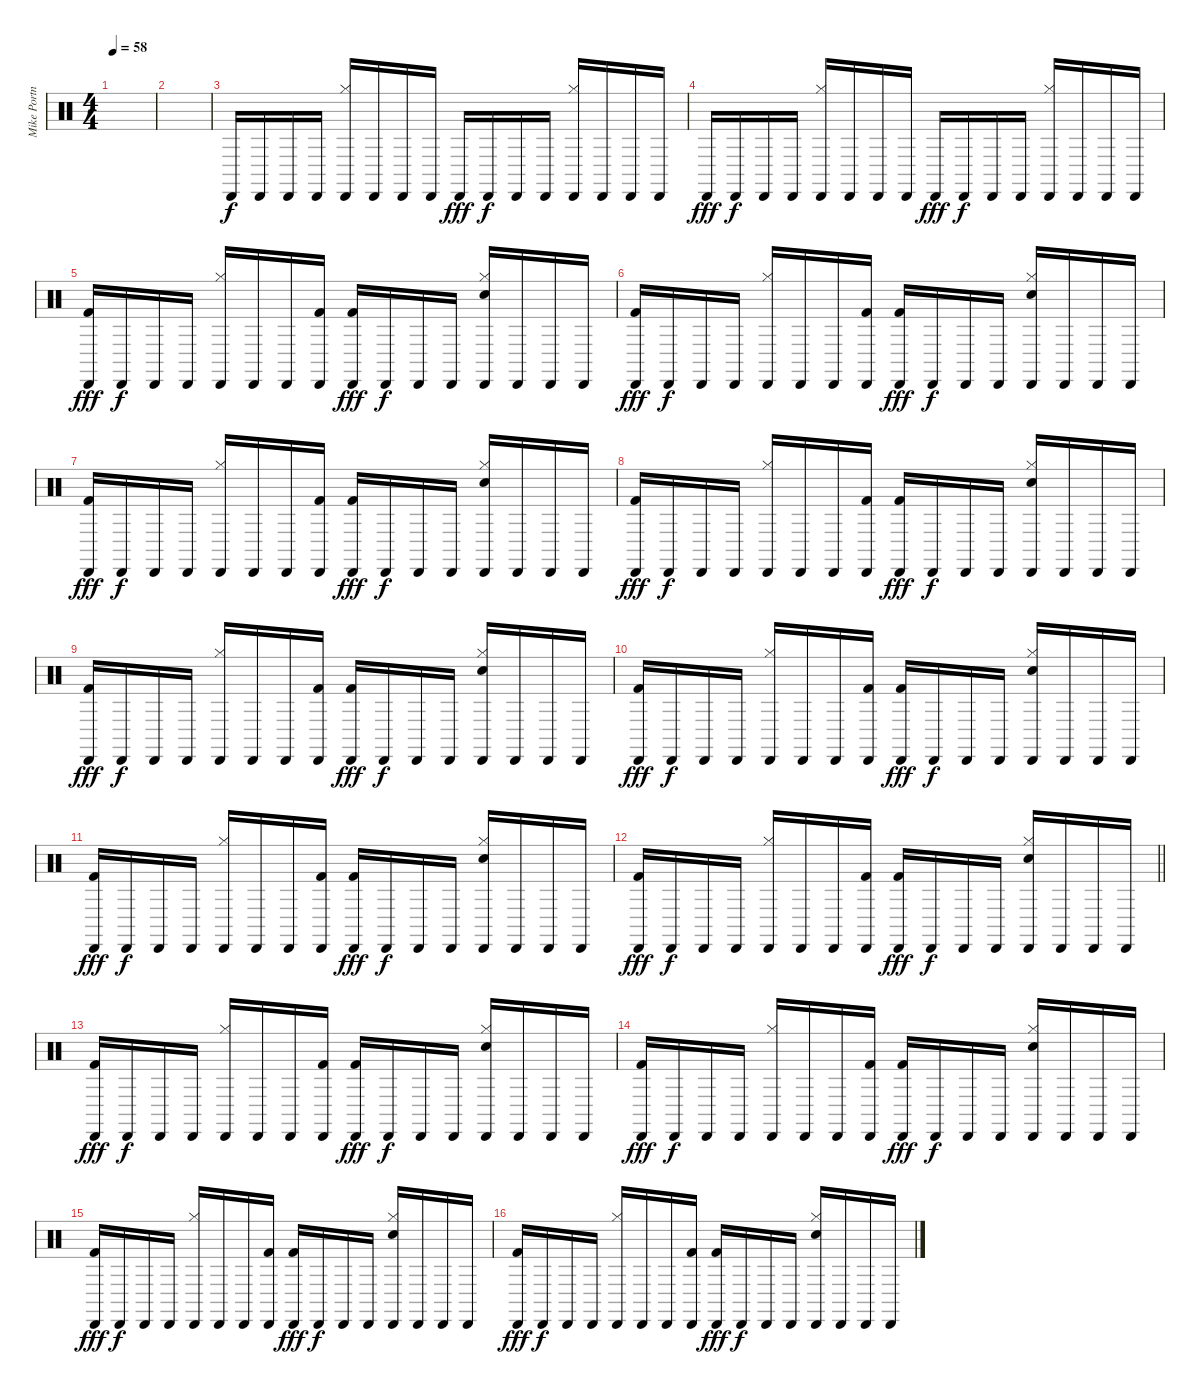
\track ("Mike Portnoy" "Mike Portn") {instrument percussion}
\staff {score}
\articulation defaults
\ts (4 4)
\tempo 58
\clef neutral
\ks c
|
|
"Cabasa (hit)".16{volume 9} "Cabasa (hit)".16{dy f} "Cabasa (hit)".16 "Cabasa (hit)".16 ("Hi-Hat (closed)" "Cabasa (hit)").16 "Cabasa (hit)".16 "Cabasa (hit)".16 "Cabasa (hit)".16 "Cabasa (hit)".16{dy fff} "Cabasa (hit)".16{dy f} "Cabasa (hit)".16 "Cabasa (hit)".16 ("Hi-Hat (closed)" "Cabasa (hit)").16 "Cabasa (hit)".16 "Cabasa (hit)".16 "Cabasa (hit)".16 |
"Cabasa (hit)".16{dy fff} "Cabasa (hit)".16{dy f} "Cabasa (hit)".16 "Cabasa (hit)".16 ("Hi-Hat (closed)" "Cabasa (hit)").16 "Cabasa (hit)".16 "Cabasa (hit)".16 "Cabasa (hit)".16 "Cabasa (hit)".16{dy fff} "Cabasa (hit)".16{dy f} "Cabasa (hit)".16 "Cabasa (hit)".16 ("Hi-Hat (closed)" "Cabasa (hit)").16 "Cabasa (hit)".16 "Cabasa (hit)".16 "Cabasa (hit)".16 |
("Cabasa (hit)" "Kick (hit) 2").16{dy fff} "Cabasa (hit)".16{dy f} "Cabasa (hit)".16 "Cabasa (hit)".16 ("Hi-Hat (closed)" "Cabasa (hit)").16 "Cabasa (hit)".16 "Cabasa (hit)".16 ("Cabasa (hit)" "Kick (hit) 2").16 ("Cabasa (hit)" "Kick (hit) 2").16{dy fff} "Cabasa (hit)".16{dy f} "Cabasa (hit)".16 "Cabasa (hit)".16 ("Hi-Hat (closed)" "Cabasa (hit)" "Snare (hit) 2").16 "Cabasa (hit)".16 "Cabasa (hit)".16 "Cabasa (hit)".16 |
("Cabasa (hit)" "Kick (hit) 2").16{dy fff} "Cabasa (hit)".16{dy f} "Cabasa (hit)".16 "Cabasa (hit)".16 ("Hi-Hat (closed)" "Cabasa (hit)").16 "Cabasa (hit)".16 "Cabasa (hit)".16 ("Cabasa (hit)" "Kick (hit) 2").16 ("Cabasa (hit)" "Kick (hit) 2").16{dy fff} "Cabasa (hit)".16{dy f} "Cabasa (hit)".16 "Cabasa (hit)".16 ("Hi-Hat (closed)" "Cabasa (hit)" "Snare (hit) 2").16 "Cabasa (hit)".16 "Cabasa (hit)".16 "Cabasa (hit)".16 |
("Cabasa (hit)" "Kick (hit) 2").16{dy fff} "Cabasa (hit)".16{dy f} "Cabasa (hit)".16 "Cabasa (hit)".16 ("Hi-Hat (closed)" "Cabasa (hit)").16 "Cabasa (hit)".16 "Cabasa (hit)".16 ("Cabasa (hit)" "Kick (hit) 2").16 ("Cabasa (hit)" "Kick (hit) 2").16{dy fff} "Cabasa (hit)".16{dy f} "Cabasa (hit)".16 "Cabasa (hit)".16 ("Hi-Hat (closed)" "Cabasa (hit)" "Snare (hit) 2").16 "Cabasa (hit)".16 "Cabasa (hit)".16 "Cabasa (hit)".16 |
("Cabasa (hit)" "Kick (hit) 2").16{dy fff} "Cabasa (hit)".16{dy f} "Cabasa (hit)".16 "Cabasa (hit)".16 ("Hi-Hat (closed)" "Cabasa (hit)").16 "Cabasa (hit)".16 "Cabasa (hit)".16 ("Cabasa (hit)" "Kick (hit) 2").16 ("Cabasa (hit)" "Kick (hit) 2").16{dy fff} "Cabasa (hit)".16{dy f} "Cabasa (hit)".16 "Cabasa (hit)".16 ("Hi-Hat (closed)" "Cabasa (hit)" "Snare (hit) 2").16 "Cabasa (hit)".16 "Cabasa (hit)".16 "Cabasa (hit)".16 |
("Cabasa (hit)" "Kick (hit) 2").16{dy fff} "Cabasa (hit)".16{dy f} "Cabasa (hit)".16 "Cabasa (hit)".16 ("Hi-Hat (closed)" "Cabasa (hit)").16 "Cabasa (hit)".16 "Cabasa (hit)".16 ("Cabasa (hit)" "Kick (hit) 2").16 ("Cabasa (hit)" "Kick (hit) 2").16{dy fff} "Cabasa (hit)".16{dy f} "Cabasa (hit)".16 "Cabasa (hit)".16 ("Hi-Hat (closed)" "Cabasa (hit)" "Snare (hit) 2").16 "Cabasa (hit)".16 "Cabasa (hit)".16 "Cabasa (hit)".16 |
("Cabasa (hit)" "Kick (hit) 2").16{dy fff} "Cabasa (hit)".16{dy f} "Cabasa (hit)".16 "Cabasa (hit)".16 ("Hi-Hat (closed)" "Cabasa (hit)").16 "Cabasa (hit)".16 "Cabasa (hit)".16 ("Cabasa (hit)" "Kick (hit) 2").16 ("Cabasa (hit)" "Kick (hit) 2").16{dy fff} "Cabasa (hit)".16{dy f} "Cabasa (hit)".16 "Cabasa (hit)".16 ("Hi-Hat (closed)" "Cabasa (hit)" "Snare (hit) 2").16 "Cabasa (hit)".16 "Cabasa (hit)".16 "Cabasa (hit)".16 |
("Cabasa (hit)" "Kick (hit) 2").16{dy fff} "Cabasa (hit)".16{dy f} "Cabasa (hit)".16 "Cabasa (hit)".16 ("Hi-Hat (closed)" "Cabasa (hit)").16 "Cabasa (hit)".16 "Cabasa (hit)".16 ("Cabasa (hit)" "Kick (hit) 2").16 ("Cabasa (hit)" "Kick (hit) 2").16{dy fff} "Cabasa (hit)".16{dy f} "Cabasa (hit)".16 "Cabasa (hit)".16 ("Hi-Hat (closed)" "Cabasa (hit)" "Snare (hit) 2").16 "Cabasa (hit)".16 "Cabasa (hit)".16 "Cabasa (hit)".16 |
\barLineRight lightlight
("Cabasa (hit)" "Kick (hit) 2").16{dy fff} "Cabasa (hit)".16{dy f} "Cabasa (hit)".16 "Cabasa (hit)".16 ("Hi-Hat (closed)" "Cabasa (hit)").16 "Cabasa (hit)".16 "Cabasa (hit)".16 ("Cabasa (hit)" "Kick (hit) 2").16 ("Cabasa (hit)" "Kick (hit) 2").16{dy fff} "Cabasa (hit)".16{dy f} "Cabasa (hit)".16 "Cabasa (hit)".16 ("Hi-Hat (closed)" "Cabasa (hit)" "Snare (hit) 2").16 "Cabasa (hit)".16 "Cabasa (hit)".16 "Cabasa (hit)".16 |
("Cabasa (hit)" "Kick (hit) 2").16{dy fff} "Cabasa (hit)".16{dy f} "Cabasa (hit)".16 "Cabasa (hit)".16 ("Hi-Hat (closed)" "Cabasa (hit)").16 "Cabasa (hit)".16 "Cabasa (hit)".16 ("Cabasa (hit)" "Kick (hit) 2").16 ("Cabasa (hit)" "Kick (hit) 2").16{dy fff} "Cabasa (hit)".16{dy f} "Cabasa (hit)".16 "Cabasa (hit)".16 ("Hi-Hat (closed)" "Cabasa (hit)" "Snare (hit) 2").16 "Cabasa (hit)".16 "Cabasa (hit)".16 "Cabasa (hit)".16 |
("Cabasa (hit)" "Kick (hit) 2").16{dy fff} "Cabasa (hit)".16{dy f} "Cabasa (hit)".16 "Cabasa (hit)".16 ("Hi-Hat (closed)" "Cabasa (hit)").16 "Cabasa (hit)".16 "Cabasa (hit)".16 ("Cabasa (hit)" "Kick (hit) 2").16 ("Cabasa (hit)" "Kick (hit) 2").16{dy fff} "Cabasa (hit)".16{dy f} "Cabasa (hit)".16 "Cabasa (hit)".16 ("Hi-Hat (closed)" "Cabasa (hit)" "Snare (hit) 2").16 "Cabasa (hit)".16 "Cabasa (hit)".16 "Cabasa (hit)".16 |
("Cabasa (hit)" "Kick (hit) 2").16{dy fff} "Cabasa (hit)".16{dy f} "Cabasa (hit)".16 "Cabasa (hit)".16 ("Hi-Hat (closed)" "Cabasa (hit)").16 "Cabasa (hit)".16 "Cabasa (hit)".16 ("Cabasa (hit)" "Kick (hit) 2").16 ("Cabasa (hit)" "Kick (hit) 2").16{dy fff} "Cabasa (hit)".16{dy f} "Cabasa (hit)".16 "Cabasa (hit)".16 ("Hi-Hat (closed)" "Cabasa (hit)" "Snare (hit) 2").16 "Cabasa (hit)".16 "Cabasa (hit)".16 "Cabasa (hit)".16 |
("Cabasa (hit)" "Kick (hit) 2").16{dy fff} "Cabasa (hit)".16{dy f} "Cabasa (hit)".16 "Cabasa (hit)".16 ("Hi-Hat (closed)" "Cabasa (hit)").16 "Cabasa (hit)".16 "Cabasa (hit)".16 ("Cabasa (hit)" "Kick (hit) 2").16 ("Cabasa (hit)" "Kick (hit) 2").16{dy fff} "Cabasa (hit)".16{dy f} "Cabasa (hit)".16 "Cabasa (hit)".16 ("Hi-Hat (closed)" "Cabasa (hit)" "Snare (hit) 2").16 "Cabasa (hit)".16 "Cabasa (hit)".16 "Cabasa (hit)".16
